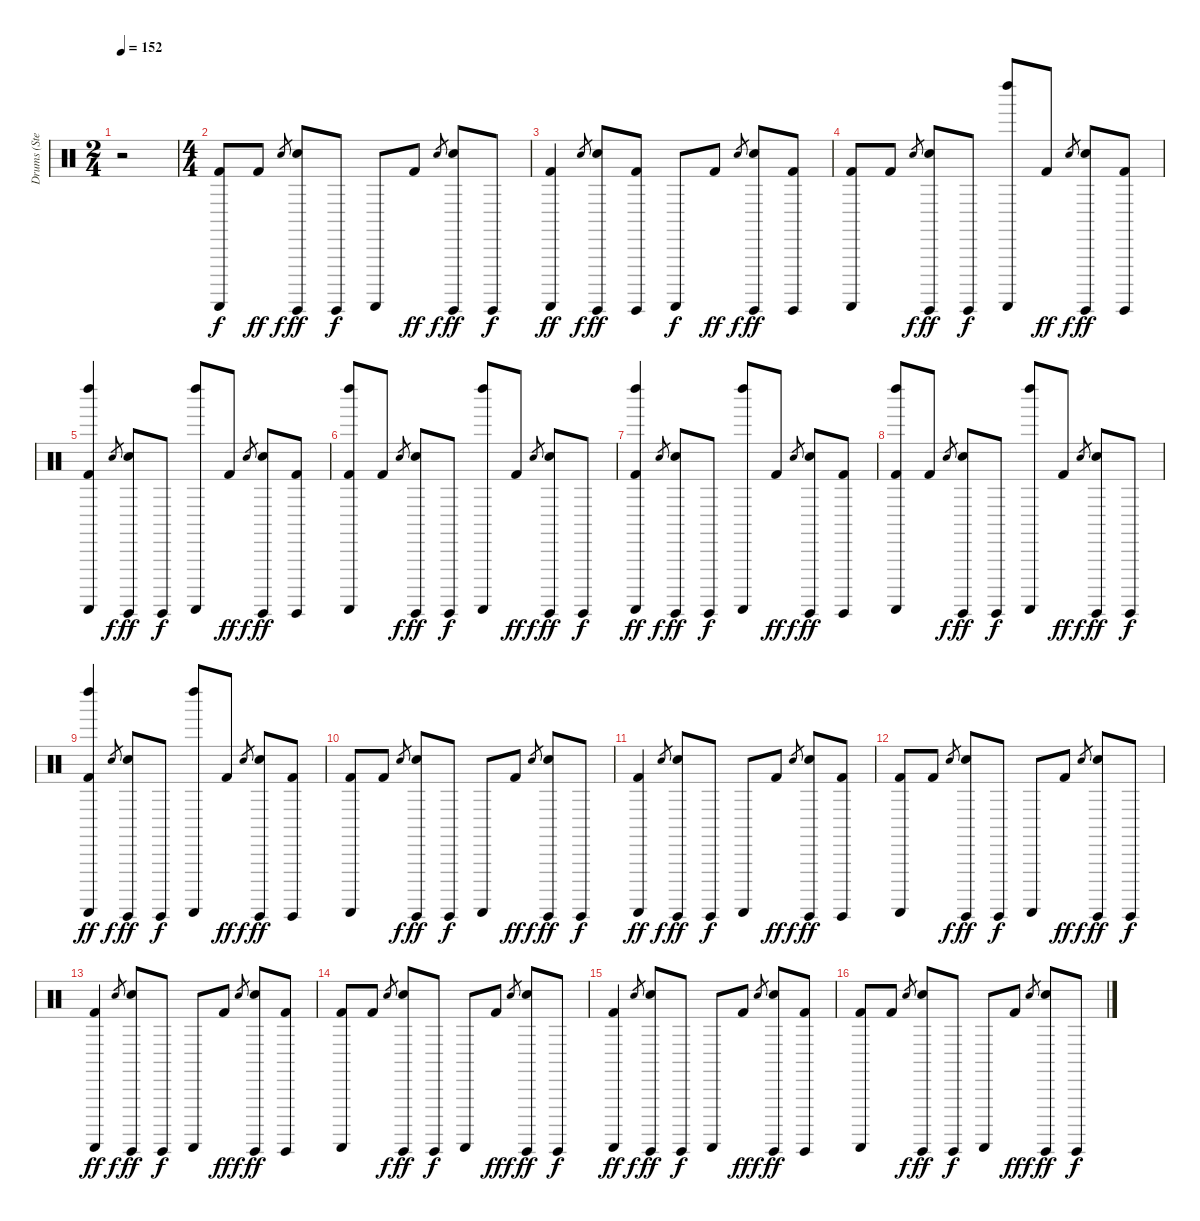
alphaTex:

\track ("Drums (Steven)" "Drums (Ste") {instrument percussion}
\staff {score}
\articulation defaults
\ts (2 4)
\tempo 152
\clef neutral
\ks c
r.2{dy f} |
\ts (4 4)
("Guiro (scrap-return)" "Kick (hit) 2").8 "Kick (hit) 2".8{dy ff} "Snare (hit) 2".8{gr dy f} ("Guiro (hit)" "Snare (hit) 2").8{dy ff} "Guiro (hit)".8{dy f} "Guiro (scrap-return)".8 "Kick (hit) 2".8{dy ff} "Snare (hit) 2".8{gr dy f} ("Guiro (hit)" "Snare (hit) 2").8{dy ff} "Guiro (hit)".8{dy f} |
("Guiro (scrap-return)" "Kick (hit) 2").4{dy ff} "Snare (hit) 2".8{gr dy f} ("Guiro (hit)" "Snare (hit) 2").8{dy ff} ("Guiro (hit)" "Kick (hit) 2").8 "Guiro (scrap-return)".8{dy f} "Kick (hit) 2".8{dy ff} "Snare (hit) 2".8{gr dy f} ("Guiro (hit)" "Snare (hit) 2").8{dy ff} ("Guiro (hit)" "Kick (hit) 2").8 |
("Guiro (scrap-return)" "Kick (hit) 2").8 "Kick (hit) 2".8 "Snare (hit) 2".8{gr dy f} ("Guiro (hit)" "Snare (hit) 2").8{dy ff} "Guiro (hit)".8{dy f} ("Left Maraca (hit)" "Guiro (scrap-return)").8 "Kick (hit) 2".8{dy ff} "Snare (hit) 2".8{gr dy f} ("Guiro (hit)" "Snare (hit) 2").8{dy ff} ("Guiro (hit)" "Kick (hit) 2").8 |
("Left Maraca (hit)" "Guiro (scrap-return)" "Kick (hit) 2").4 "Snare (hit) 2".8{gr dy f} ("Guiro (hit)" "Snare (hit) 2").8{dy ff} "Guiro (hit)".8{dy f} ("Left Maraca (hit)" "Guiro (scrap-return)").8 "Kick (hit) 2".8{dy ff} "Snare (hit) 2".8{gr dy f} ("Guiro (hit)" "Snare (hit) 2").8{dy ff} ("Guiro (hit)" "Kick (hit) 2").8 |
("Left Maraca (hit)" "Guiro (scrap-return)" "Kick (hit) 2").8 "Kick (hit) 2".8 "Snare (hit) 2".8{gr dy f} ("Guiro (hit)" "Snare (hit) 2").8{dy ff} "Guiro (hit)".8{dy f} ("Left Maraca (hit)" "Guiro (scrap-return)").8 "Kick (hit) 2".8{dy ff} "Snare (hit) 2".8{gr dy f} ("Guiro (hit)" "Snare (hit) 2").8{dy ff} "Guiro (hit)".8{dy f} |
("Left Maraca (hit)" "Guiro (scrap-return)" "Kick (hit) 2").4{dy ff} "Snare (hit) 2".8{gr dy f} ("Guiro (hit)" "Snare (hit) 2").8{dy ff} "Guiro (hit)".8{dy f} ("Left Maraca (hit)" "Guiro (scrap-return)").8 "Kick (hit) 2".8{dy ff} "Snare (hit) 2".8{gr dy f} ("Guiro (hit)" "Snare (hit) 2").8{dy ff} ("Guiro (hit)" "Kick (hit) 2").8 |
("Left Maraca (hit)" "Guiro (scrap-return)" "Kick (hit) 2").8 "Kick (hit) 2".8 "Snare (hit) 2".8{gr dy f} ("Guiro (hit)" "Snare (hit) 2").8{dy ff} "Guiro (hit)".8{dy f} ("Left Maraca (hit)" "Guiro (scrap-return)").8 "Kick (hit) 2".8{dy ff} "Snare (hit) 2".8{gr dy f} ("Guiro (hit)" "Snare (hit) 2").8{dy ff} "Guiro (hit)".8{dy f} |
("Left Maraca (hit)" "Guiro (scrap-return)" "Kick (hit) 2").4{dy ff} "Snare (hit) 2".8{gr dy f} ("Guiro (hit)" "Snare (hit) 2").8{dy ff} "Guiro (hit)".8{dy f} ("Left Maraca (hit)" "Guiro (scrap-return)").8 "Kick (hit) 2".8{dy ff} "Snare (hit) 2".8{gr dy f} ("Guiro (hit)" "Snare (hit) 2").8{dy ff} ("Guiro (hit)" "Kick (hit) 2").8 |
("Guiro (scrap-return)" "Kick (hit) 2").8 "Kick (hit) 2".8 "Snare (hit) 2".8{gr dy f} ("Guiro (hit)" "Snare (hit) 2").8{dy ff} "Guiro (hit)".8{dy f} "Guiro (scrap-return)".8 "Kick (hit) 2".8{dy ff} "Snare (hit) 2".8{gr dy f} ("Guiro (hit)" "Snare (hit) 2").8{dy ff} "Guiro (hit)".8{dy f} |
("Guiro (scrap-return)" "Kick (hit) 2").4{dy ff} "Snare (hit) 2".8{gr dy f} ("Guiro (hit)" "Snare (hit) 2").8{dy ff} "Guiro (hit)".8{dy f} "Guiro (scrap-return)".8 "Kick (hit) 2".8{dy ff} "Snare (hit) 2".8{gr dy f} ("Guiro (hit)" "Snare (hit) 2").8{dy ff} ("Guiro (hit)" "Kick (hit) 2").8 |
("Guiro (scrap-return)" "Kick (hit) 2").8 "Kick (hit) 2".8 "Snare (hit) 2".8{gr dy f} ("Guiro (hit)" "Snare (hit) 2").8{dy ff} "Guiro (hit)".8{dy f} "Guiro (scrap-return)".8 "Kick (hit) 2".8{dy ff} "Snare (hit) 2".8{gr dy f} ("Guiro (hit)" "Snare (hit) 2").8{dy ff} "Guiro (hit)".8{dy f} |
("Guiro (scrap-return)" "Kick (hit) 2").4{dy ff} "Snare (hit) 2".8{gr dy f} ("Guiro (hit)" "Snare (hit) 2").8{dy ff} "Guiro (hit)".8{dy f} "Guiro (scrap-return)".8 "Kick (hit) 2".8{dy ff} "Snare (hit) 2".8{gr dy f} ("Guiro (hit)" "Snare (hit) 2").8{dy ff} ("Guiro (hit)" "Kick (hit) 2").8 |
("Guiro (scrap-return)" "Kick (hit) 2").8 "Kick (hit) 2".8 "Snare (hit) 2".8{gr dy f} ("Guiro (hit)" "Snare (hit) 2").8{dy ff} "Guiro (hit)".8{dy f} "Guiro (scrap-return)".8 "Kick (hit) 2".8{dy ff} "Snare (hit) 2".8{gr dy f} ("Guiro (hit)" "Snare (hit) 2").8{dy ff} "Guiro (hit)".8{dy f} |
("Guiro (scrap-return)" "Kick (hit) 2").4{dy ff} "Snare (hit) 2".8{gr dy f} ("Guiro (hit)" "Snare (hit) 2").8{dy ff} "Guiro (hit)".8{dy f} "Guiro (scrap-return)".8 "Kick (hit) 2".8{dy ff} "Snare (hit) 2".8{gr dy f} ("Guiro (hit)" "Snare (hit) 2").8{dy ff} ("Guiro (hit)" "Kick (hit) 2").8 |
("Guiro (scrap-return)" "Kick (hit) 2").8 "Kick (hit) 2".8 "Snare (hit) 2".8{gr dy f} ("Guiro (hit)" "Snare (hit) 2").8{dy ff} "Guiro (hit)".8{dy f} "Guiro (scrap-return)".8 "Kick (hit) 2".8{dy ff} "Snare (hit) 2".8{gr dy f} ("Guiro (hit)" "Snare (hit) 2").8{dy ff} "Guiro (hit)".8{dy f}
